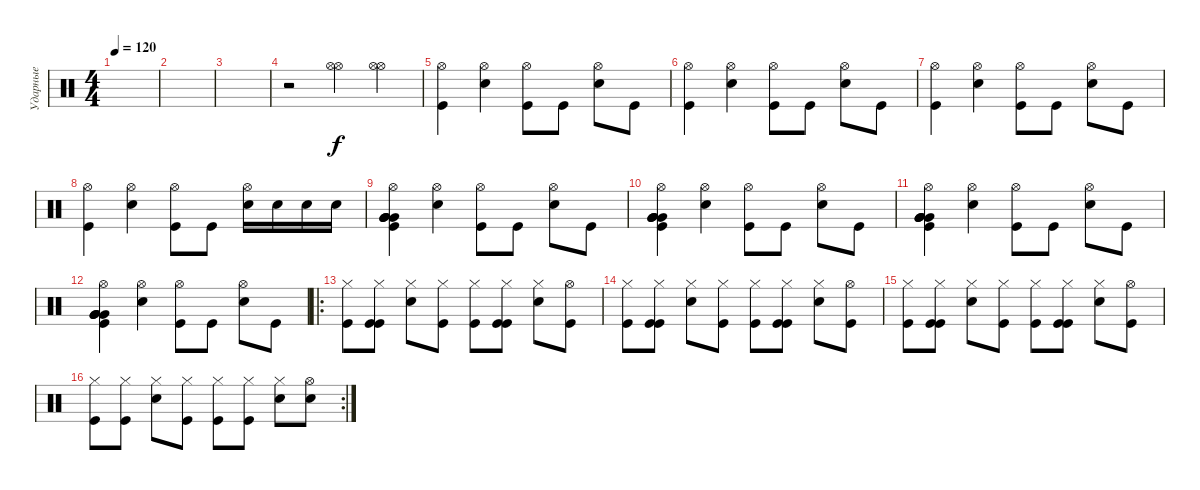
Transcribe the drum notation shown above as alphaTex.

\track ("Ударные" "Ударные") {instrument percussion}
\staff {score}
\articulation defaults
\ts (4 4)
\tempo 120
\clef neutral
\ks c
|
|
|
r.2 ("Hi-Hat (open)" "Hi-Hat (open)").4 ("Hi-Hat (open)" "Hi-Hat (open)").4 |
("Kick (hit)" "Hi-Hat (open)").4 ("Electric Snare (hit)" "Hi-Hat (open)").4 ("Kick (hit)" "Hi-Hat (open)").8 "Kick (hit)".8 ("Electric Snare (hit)" "Hi-Hat (open)").8 "Kick (hit)".8 |
("Kick (hit)" "Hi-Hat (open)").4 ("Electric Snare (hit)" "Hi-Hat (open)").4 ("Kick (hit)" "Hi-Hat (open)").8 "Kick (hit)".8 ("Electric Snare (hit)" "Hi-Hat (open)").8 "Kick (hit)".8 |
("Kick (hit)" "Hi-Hat (open)").4 ("Electric Snare (hit)" "Hi-Hat (open)").4 ("Kick (hit)" "Hi-Hat (open)").8 "Kick (hit)".8 ("Electric Snare (hit)" "Hi-Hat (open)").8 "Kick (hit)".8 |
("Kick (hit)" "Hi-Hat (open)").4 ("Electric Snare (hit)" "Hi-Hat (open)").4 ("Kick (hit)" "Hi-Hat (open)").8 "Kick (hit)".8 ("Electric Snare (hit)" "Hi-Hat (open)").16 "Electric Snare (hit)".16 "Electric Snare (hit)".16 "Electric Snare (hit)".16 |
("Very Low Tom (hit)" "Kick (hit)" "Very Low Tom (hit)" "Hi-Hat (open)" "Very Low Tom (hit)" "Very Low Tom (hit)").4 ("Electric Snare (hit)" "Hi-Hat (open)").4 ("Kick (hit)" "Hi-Hat (open)").8 "Kick (hit)".8 ("Electric Snare (hit)" "Hi-Hat (open)").8 "Kick (hit)".8 |
("Very Low Tom (hit)" "Kick (hit)" "Very Low Tom (hit)" "Hi-Hat (open)" "Very Low Tom (hit)" "Very Low Tom (hit)").4 ("Electric Snare (hit)" "Hi-Hat (open)").4 ("Kick (hit)" "Hi-Hat (open)").8 "Kick (hit)".8 ("Electric Snare (hit)" "Hi-Hat (open)").8 "Kick (hit)".8 |
("Very Low Tom (hit)" "Kick (hit)" "Very Low Tom (hit)" "Hi-Hat (open)" "Very Low Tom (hit)" "Very Low Tom (hit)").4 ("Electric Snare (hit)" "Hi-Hat (open)").4 ("Kick (hit)" "Hi-Hat (open)").8 "Kick (hit)".8 ("Electric Snare (hit)" "Hi-Hat (open)").8 "Kick (hit)".8 |
("Very Low Tom (hit)" "Kick (hit)" "Very Low Tom (hit)" "Hi-Hat (open)" "Very Low Tom (hit)" "Very Low Tom (hit)").4 ("Electric Snare (hit)" "Hi-Hat (open)").4 ("Kick (hit)" "Hi-Hat (open)").8 "Kick (hit)".8 ("Electric Snare (hit)" "Hi-Hat (open)").8 "Kick (hit)".8 |
\ro
("Kick (hit)" "Hi-Hat (closed)").8 ("Kick (hit)" "Kick (hit)" "Hi-Hat (closed)").8 ("Electric Snare (hit)" "Hi-Hat (closed)").8 ("Kick (hit)" "Hi-Hat (closed)").8 ("Kick (hit)" "Hi-Hat (closed)").8 ("Kick (hit)" "Kick (hit)" "Hi-Hat (closed)").8 ("Electric Snare (hit)" "Hi-Hat (closed)").8 ("Kick (hit)" "Hi-Hat (open)").8 |
("Kick (hit)" "Hi-Hat (closed)").8 ("Kick (hit)" "Kick (hit)" "Hi-Hat (closed)").8 ("Electric Snare (hit)" "Hi-Hat (closed)").8 ("Kick (hit)" "Hi-Hat (closed)").8 ("Kick (hit)" "Hi-Hat (closed)").8 ("Kick (hit)" "Kick (hit)" "Hi-Hat (closed)").8 ("Electric Snare (hit)" "Hi-Hat (closed)").8 ("Kick (hit)" "Hi-Hat (open)").8 |
("Kick (hit)" "Hi-Hat (closed)").8 ("Kick (hit)" "Kick (hit)" "Hi-Hat (closed)").8 ("Electric Snare (hit)" "Hi-Hat (closed)").8 ("Kick (hit)" "Hi-Hat (closed)").8 ("Kick (hit)" "Hi-Hat (closed)").8 ("Kick (hit)" "Kick (hit)" "Hi-Hat (closed)").8 ("Electric Snare (hit)" "Hi-Hat (closed)").8 ("Kick (hit)" "Hi-Hat (open)").8 |
\rc 2
("Kick (hit)" "Hi-Hat (closed)").8 ("Kick (hit)" "Hi-Hat (closed)").8 ("Electric Snare (hit)" "Hi-Hat (closed)").8 ("Kick (hit)" "Hi-Hat (closed)").8 ("Kick (hit)" "Hi-Hat (closed)").8 ("Kick (hit)" "Hi-Hat (closed)").8 ("Electric Snare (hit)" "Hi-Hat (closed)").8 ("Electric Snare (hit)" "Hi-Hat (open)").8
